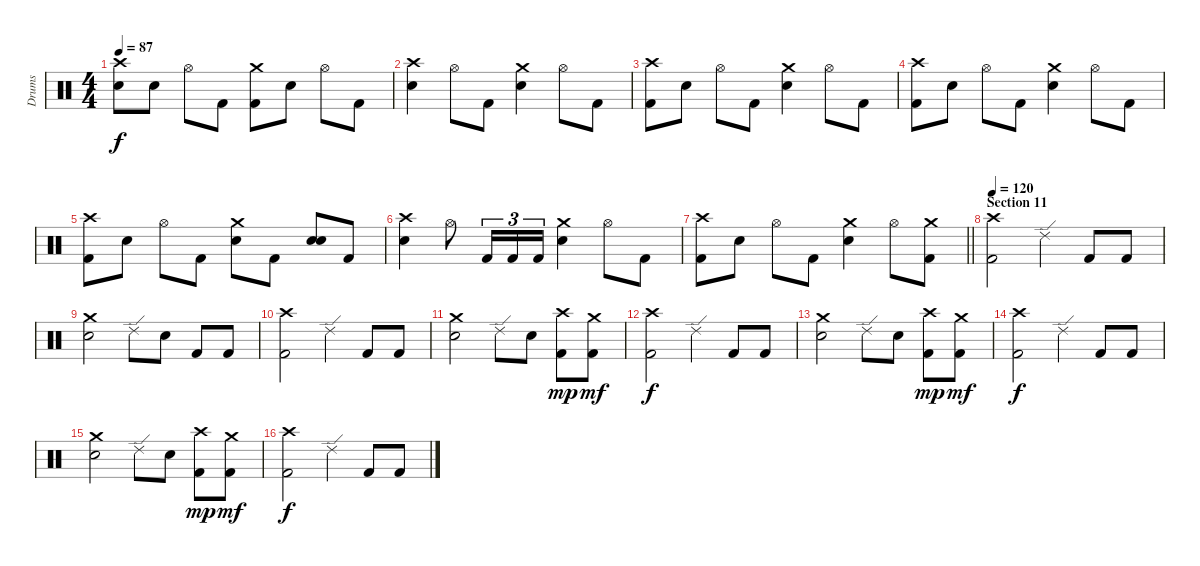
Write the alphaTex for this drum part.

\track ("Drums" "Drums") {instrument percussion}
\staff {score}
\articulation defaults
\ts (4 4)
\tempo 87
\clef neutral
\ks c
("Crash high (hit)" "Electric Snare (hit)").8{dy f} "Electric Snare (hit)".8 "Hi-Hat (open)".8 "Kick (hit) 2".8 ("Crash medium (hit)" "Kick (hit) 2").8 "Electric Snare (hit)".8 "Hi-Hat (open)".8 "Kick (hit) 2".8 |
("Crash high (hit)" "Electric Snare (hit)").4 "Hi-Hat (open)".8 "Kick (hit) 2".8 ("Crash medium (hit)" "Electric Snare (hit)").4 "Hi-Hat (open)".8 "Kick (hit) 2".8 |
("Crash high (hit)" "Kick (hit) 2").8 "Electric Snare (hit)".8 "Hi-Hat (open)".8 "Kick (hit) 2".8 ("Crash medium (hit)" "Electric Snare (hit)").4 "Hi-Hat (open)".8 "Kick (hit) 2".8 |
("Crash high (hit)" "Kick (hit) 2").8 "Electric Snare (hit)".8 "Hi-Hat (open)".8 "Kick (hit) 2".8 ("Crash medium (hit)" "Electric Snare (hit)").4 "Hi-Hat (open)".8 "Kick (hit) 2".8 |
("Crash high (hit)" "Kick (hit) 2").8 "Electric Snare (hit)".8 "Hi-Hat (open)".8 "Kick (hit) 2".8 ("Crash medium (hit)" "Electric Snare (hit)").8 "Kick (hit) 2".8 ("Electric Snare (hit)" "Electric Snare (hit)").8{bu 60} "Kick (hit) 2".8 |
("Crash high (hit)" "Electric Snare (hit)").4 "Hi-Hat (open)".8 "Kick (hit) 2".16{tu (3 2)} "Kick (hit) 2".16{tu (3 2)} "Kick (hit) 2".16{tu (3 2)} ("Crash medium (hit)" "Electric Snare (hit)").4 "Hi-Hat (open)".8 "Kick (hit) 2".8 |
\barLineRight lightlight
("Crash high (hit)" "Kick (hit) 2").8 "Electric Snare (hit)".8 "Hi-Hat (open)".8 "Kick (hit) 2".8 ("Crash medium (hit)" "Electric Snare (hit)").4 "Hi-Hat (open)".8 ("Crash medium (hit)" "Kick (hit) 2").8 |
\section ("" "Section 11")
\tempo 120
("Crash high (hit)" "Kick (hit) 2").2 "Ride (edge) 2".4 "Kick (hit) 2".8 "Kick (hit) 2".8 |
("Crash medium (hit)" "Electric Snare (hit)").2 "Ride (edge) 2".8 "Electric Snare (hit)".8 "Kick (hit) 2".8 "Kick (hit) 2".8 |
("Crash high (hit)" "Kick (hit) 2").2 "Ride (edge) 2".4 "Kick (hit) 2".8 "Kick (hit) 2".8 |
("Crash medium (hit)" "Electric Snare (hit)").2 "Ride (edge) 2".8 "Electric Snare (hit)".8 ("Crash high (hit)" "Kick (hit) 2").8{dy mp} ("Crash medium (hit)" "Kick (hit) 2").8{dy mf} |
("Crash high (hit)" "Kick (hit) 2").2{dy f} "Ride (edge) 2".4 "Kick (hit) 2".8 "Kick (hit) 2".8 |
("Crash medium (hit)" "Electric Snare (hit)").2 "Ride (edge) 2".8 "Electric Snare (hit)".8 ("Crash high (hit)" "Kick (hit) 2").8{dy mp} ("Crash medium (hit)" "Kick (hit) 2").8{dy mf} |
("Crash high (hit)" "Kick (hit) 2").2{dy f} "Ride (edge) 2".4 "Kick (hit) 2".8 "Kick (hit) 2".8 |
("Crash medium (hit)" "Electric Snare (hit)").2 "Ride (edge) 2".8 "Electric Snare (hit)".8 ("Crash high (hit)" "Kick (hit) 2").8{dy mp} ("Crash medium (hit)" "Kick (hit) 2").8{dy mf} |
("Crash high (hit)" "Kick (hit) 2").2{dy f} "Ride (edge) 2".4 "Kick (hit) 2".8 "Kick (hit) 2".8
